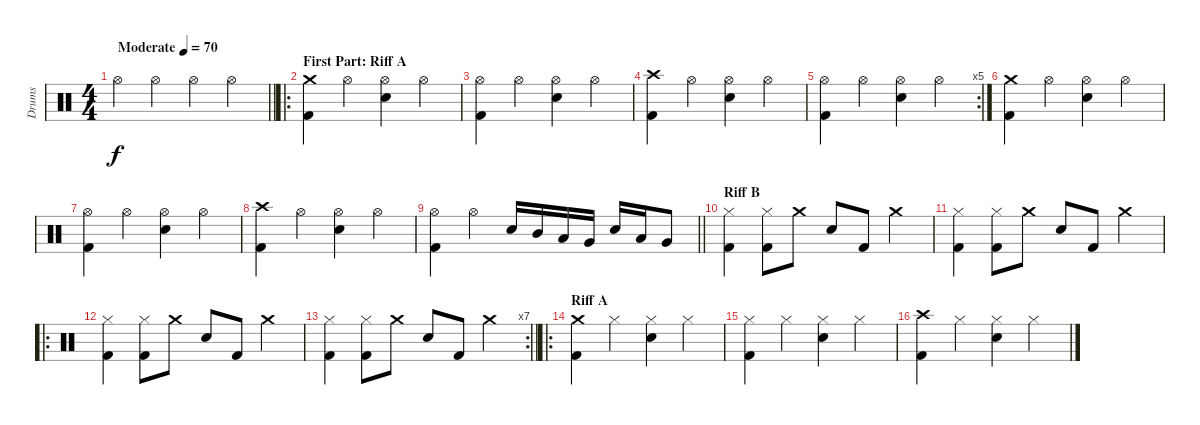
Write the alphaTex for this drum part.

\track ("Drums" "Drums") {instrument percussion}
\staff {score}
\articulation defaults
\ts (4 4)
\tempo (70 "Moderate")
\clef neutral
\barLineRight lightlight
\ks c "Hi-Hat (open)".4{dy f} "Hi-Hat (open)".4 "Hi-Hat (open)".4 "Hi-Hat (open)".4
|
\ro
\section ("" "First Part: Riff A")
("Crash medium (hit)" "Kick (hit) 2").4 "Hi-Hat (open)".4 ("Hi-Hat (open)" "Electric Snare (hit)").4 "Hi-Hat (open)".4 |
("Hi-Hat (open)" "Kick (hit) 2").4 "Hi-Hat (open)".4 ("Hi-Hat (open)" "Electric Snare (hit)").4 "Hi-Hat (open)".4 |
("Crash high (hit)" "Kick (hit) 2").4 "Hi-Hat (open)".4 ("Hi-Hat (open)" "Electric Snare (hit)").4 "Hi-Hat (open)".4 |
\rc 5
("Hi-Hat (open)" "Kick (hit) 2").4 "Hi-Hat (open)".4 ("Hi-Hat (open)" "Electric Snare (hit)").4 "Hi-Hat (open)".4 |
("Crash medium (hit)" "Kick (hit) 2").4 "Hi-Hat (open)".4 ("Hi-Hat (open)" "Electric Snare (hit)").4 "Hi-Hat (open)".4 |
("Hi-Hat (open)" "Kick (hit) 2").4 "Hi-Hat (open)".4 ("Hi-Hat (open)" "Electric Snare (hit)").4 "Hi-Hat (open)".4 |
("Crash high (hit)" "Kick (hit) 2").4 "Hi-Hat (open)".4 ("Hi-Hat (open)" "Electric Snare (hit)").4 "Hi-Hat (open)".4 |
\barLineRight lightlight
("Hi-Hat (open)" "Kick (hit) 2").4 "Hi-Hat (open)".4 "Electric Snare (hit)".16 "Mid Tom (hit)".16 "Low Tom (hit)".16 "Very Low Tom (hit)".16 "Electric Snare (hit)".16 "Low Tom (hit)".16 "Very Low Tom (hit)".8 |
\section ("" "Riff B")
("Hi-Hat (closed)" "Kick (hit) 2").4 ("Hi-Hat (closed)" "Kick (hit) 2").8 "Crash medium (hit)".8 "Electric Snare (hit)".8 "Kick (hit) 2".8 "Crash medium (hit)".4 |
("Hi-Hat (closed)" "Kick (hit) 2").4 ("Hi-Hat (closed)" "Kick (hit) 2").8 "Crash medium (hit)".8 "Electric Snare (hit)".8 "Kick (hit) 2".8 "Crash medium (hit)".4 |
\ro
("Hi-Hat (closed)" "Kick (hit) 2").4 ("Hi-Hat (closed)" "Kick (hit) 2").8 "Crash medium (hit)".8 "Electric Snare (hit)".8 "Kick (hit) 2".8 "Crash medium (hit)".4 |
\rc 7
\barLineRight lightlight
("Hi-Hat (closed)" "Kick (hit) 2").4 ("Hi-Hat (closed)" "Kick (hit) 2").8 "Crash medium (hit)".8 "Electric Snare (hit)".8 "Kick (hit) 2".8 "Crash medium (hit)".4 |
\ro
\section ("" "Riff A")
("Crash medium (hit)" "Kick (hit) 2").4 "Hi-Hat (closed)".4 ("Hi-Hat (closed)" "Electric Snare (hit)").4 "Hi-Hat (closed)".4 |
("Hi-Hat (closed)" "Kick (hit) 2").4 "Hi-Hat (closed)".4 ("Hi-Hat (closed)" "Electric Snare (hit)").4 "Hi-Hat (closed)".4 |
("Crash high (hit)" "Kick (hit) 2").4 "Hi-Hat (closed)".4 ("Hi-Hat (closed)" "Electric Snare (hit)").4 "Hi-Hat (closed)".4
